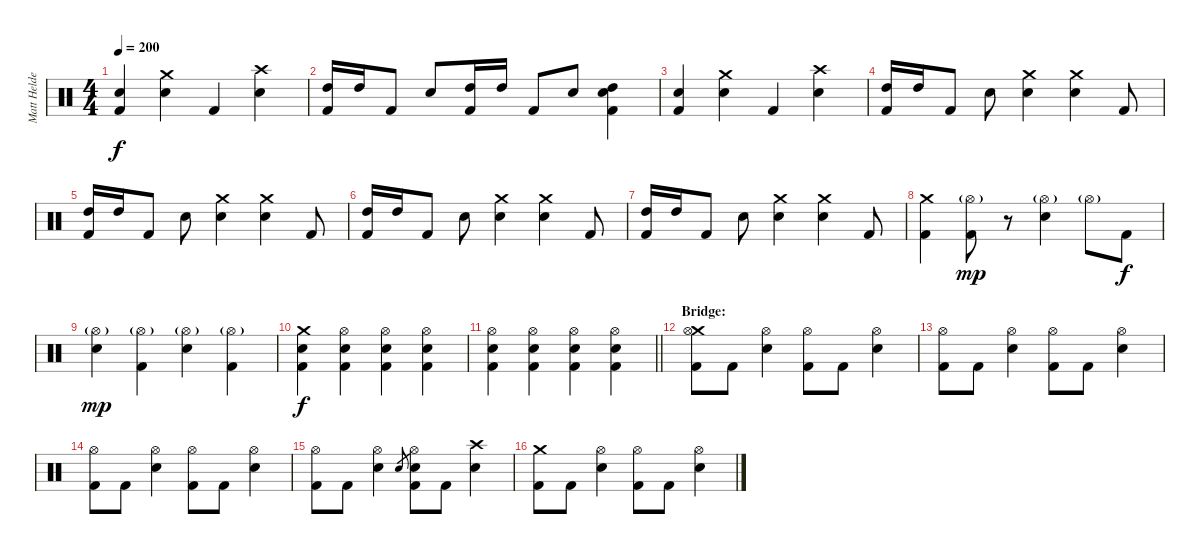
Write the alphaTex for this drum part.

\track ("Matt Helders (Drums/Percussion)" "Matt Helde") {instrument percussion}
\staff {score}
\articulation defaults
\ts (4 4)
\tempo 200
\clef neutral
\ks c
("Snare (hit) 2" "Kick (hit) 2").4{dy f} ("Crash medium (hit)" "Snare (hit) 2").4 "Kick (hit) 2".4 ("Crash high (hit)" "Snare (hit) 2").4 |
("High Tom (hit)" "Kick (hit) 2").16 "High Tom (hit)".16 "Kick (hit) 2".8 "Snare (hit) 2".8 ("High Tom (hit)" "Kick (hit) 2").16 "High Tom (hit)".16 "Kick (hit) 2".8 "Snare (hit) 2".8 ("High Tom (hit)" "Snare (hit) 2" "Kick (hit) 2").4 |
("Snare (hit) 2" "Kick (hit) 2").4 ("Crash medium (hit)" "Snare (hit) 2").4 "Kick (hit) 2".4 ("Crash high (hit)" "Snare (hit) 2").4 |
("High Tom (hit)" "Kick (hit) 2").16 "High Tom (hit)".16 "Kick (hit) 2".8 "Snare (hit) 2".8 ("Crash medium (hit)" "Snare (hit) 2").4 ("Crash medium (hit)" "Snare (hit) 2").4 "Kick (hit) 2".8 |
("High Tom (hit)" "Kick (hit) 2").16 "High Tom (hit)".16 "Kick (hit) 2".8 "Snare (hit) 2".8 ("Crash medium (hit)" "Snare (hit) 2").4 ("Crash medium (hit)" "Snare (hit) 2").4 "Kick (hit) 2".8 |
("High Tom (hit)" "Kick (hit) 2").16 "High Tom (hit)".16 "Kick (hit) 2".8 "Snare (hit) 2".8 ("Crash medium (hit)" "Snare (hit) 2").4 ("Crash medium (hit)" "Snare (hit) 2").4 "Kick (hit) 2".8 |
("High Tom (hit)" "Kick (hit) 2").16 "High Tom (hit)".16 "Kick (hit) 2".8 "Snare (hit) 2".8 ("Crash medium (hit)" "Snare (hit) 2").4 ("Crash medium (hit)" "Snare (hit) 2").4 "Kick (hit) 2".8 |
("Crash medium (hit)" "Kick (hit) 2").4 ("Hi-Hat (open)"{g} "Kick (hit) 2").8{dy mp} r.8 ("Hi-Hat (open)"{g} "Snare (hit) 2").4 "Hi-Hat (open)"{g}.8 "Kick (hit) 2".8{dy f} |
("Hi-Hat (open)"{g} "Snare (hit) 2").4{dy mp} ("Hi-Hat (open)"{g} "Kick (hit) 2").4 ("Hi-Hat (open)"{g} "Snare (hit) 2").4 ("Hi-Hat (open)"{g} "Kick (hit) 2").4 |
("Crash medium (hit)" "Snare (hit) 2" "Kick (hit) 2").4{dy f} ("Hi-Hat (open)" "Snare (hit) 2" "Kick (hit) 2").4 ("Hi-Hat (open)" "Snare (hit) 2" "Kick (hit) 2").4 ("Hi-Hat (open)" "Snare (hit) 2" "Kick (hit) 2").4 |
\barLineRight lightlight
("Hi-Hat (open)" "Snare (hit) 2" "Kick (hit) 2").4 ("Hi-Hat (open)" "Snare (hit) 2" "Kick (hit) 2").4 ("Hi-Hat (open)" "Snare (hit) 2" "Kick (hit) 2").4 ("Hi-Hat (open)" "Snare (hit) 2" "Kick (hit) 2").4 |
\section ("" "Bridge:")
("Crash medium (hit)" "Hi-Hat (open)" "Kick (hit) 2").8 "Kick (hit) 2".8 ("Hi-Hat (open)" "Snare (hit) 2").4 ("Hi-Hat (open)" "Kick (hit) 2").8 "Kick (hit) 2".8 ("Hi-Hat (open)" "Snare (hit) 2").4 |
("Hi-Hat (open)" "Kick (hit) 2").8 "Kick (hit) 2".8 ("Hi-Hat (open)" "Snare (hit) 2").4 ("Hi-Hat (open)" "Kick (hit) 2").8 "Kick (hit) 2".8 ("Hi-Hat (open)" "Snare (hit) 2").4 |
("Hi-Hat (open)" "Kick (hit) 2").8 "Kick (hit) 2".8 ("Hi-Hat (open)" "Snare (hit) 2").4 ("Hi-Hat (open)" "Kick (hit) 2").8 "Kick (hit) 2".8 ("Hi-Hat (open)" "Snare (hit) 2").4 |
("Hi-Hat (open)" "Kick (hit) 2").8 "Kick (hit) 2".8 ("Hi-Hat (open)" "Snare (hit) 2").4 "Snare (hit) 2".8{gr} ("Hi-Hat (open)" "Snare (hit) 2" "Kick (hit) 2").8 "Kick (hit) 2".8 ("Crash high (hit)" "Snare (hit) 2").4 |
("Crash medium (hit)" "Kick (hit) 2").8 "Kick (hit) 2".8 ("Hi-Hat (open)" "Snare (hit) 2").4 ("Hi-Hat (open)" "Kick (hit) 2").8 "Kick (hit) 2".8 ("Hi-Hat (open)" "Snare (hit) 2").4
